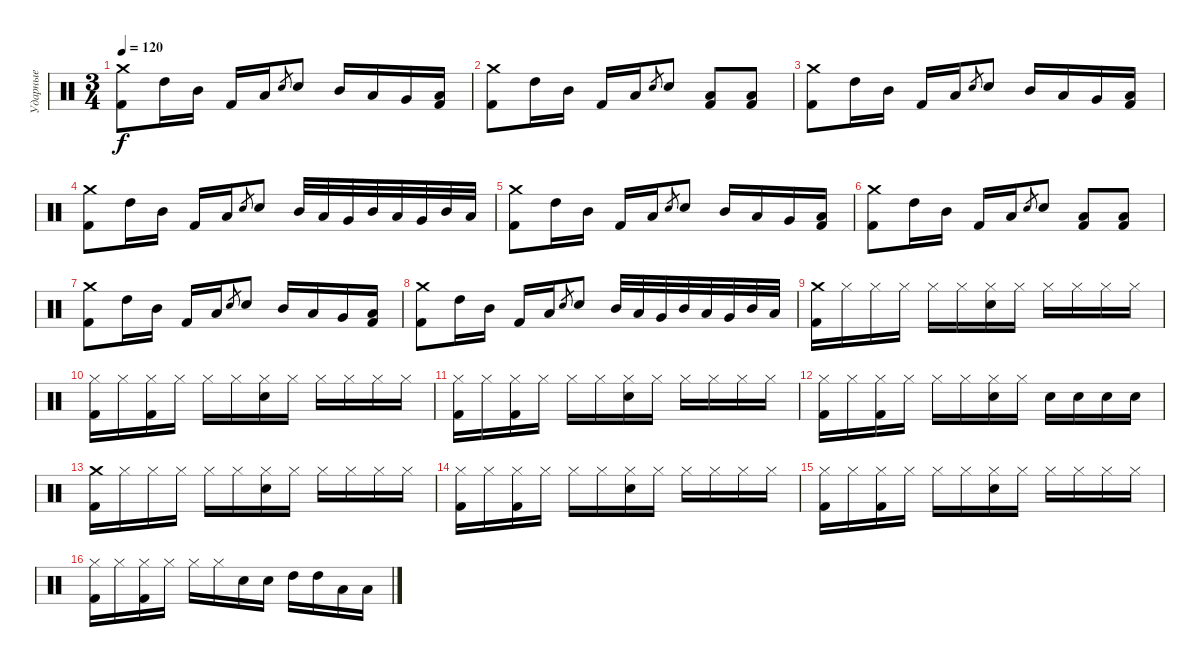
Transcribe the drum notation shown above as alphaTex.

\track ("Ударные" "Ударные") {instrument percussion}
\staff {score}
\articulation defaults
\ts (3 4)
\tempo 120
\clef neutral
\ks c
("Crash medium (hit)" "Kick (hit) 2").8{dy f} "High Tom (hit)".16 "Mid Tom (hit)".16 "Kick (hit) 2".16 "Low Tom (hit)".16 "Electric Snare (hit)".8{gr} "Electric Snare (hit)".8 "Mid Tom (hit)".16 "Low Tom (hit)".16 "Very Low Tom (hit)".16 ("Low Floor Tom (hit)" "Kick (hit) 2").16 |
("Crash medium (hit)" "Kick (hit) 2").8 "High Tom (hit)".16 "Mid Tom (hit)".16 "Kick (hit) 2".16 "Low Tom (hit)".16 "Electric Snare (hit)".8{gr} "Electric Snare (hit)".8 ("Low Floor Tom (hit)" "Kick (hit) 2").8 ("Low Floor Tom (hit)" "Kick (hit) 2").8 |
("Crash medium (hit)" "Kick (hit) 2").8 "High Tom (hit)".16 "Mid Tom (hit)".16 "Kick (hit) 2".16 "Low Tom (hit)".16 "Electric Snare (hit)".8{gr} "Electric Snare (hit)".8 "Mid Tom (hit)".16 "Low Tom (hit)".16 "Very Low Tom (hit)".16 ("Low Floor Tom (hit)" "Kick (hit) 2").16 |
("Crash medium (hit)" "Kick (hit) 2").8 "High Tom (hit)".16 "Mid Tom (hit)".16 "Kick (hit) 2".16 "Low Tom (hit)".16 "Electric Snare (hit)".8{gr} "Electric Snare (hit)".8 "Mid Tom (hit)".32 "Low Tom (hit)".32 "Very Low Tom (hit)".32 "Mid Tom (hit)".32 "Low Tom (hit)".32 "Very Low Tom (hit)".32 "Mid Tom (hit)".32 "Low Tom (hit)".32 |
("Crash medium (hit)" "Kick (hit) 2").8 "High Tom (hit)".16 "Mid Tom (hit)".16 "Kick (hit) 2".16 "Low Tom (hit)".16 "Electric Snare (hit)".8{gr} "Electric Snare (hit)".8 "Mid Tom (hit)".16 "Low Tom (hit)".16 "Very Low Tom (hit)".16 ("Low Floor Tom (hit)" "Kick (hit) 2").16 |
("Crash medium (hit)" "Kick (hit) 2").8 "High Tom (hit)".16 "Mid Tom (hit)".16 "Kick (hit) 2".16 "Low Tom (hit)".16 "Electric Snare (hit)".8{gr} "Electric Snare (hit)".8 ("Low Floor Tom (hit)" "Kick (hit) 2").8 ("Low Floor Tom (hit)" "Kick (hit) 2").8 |
("Crash medium (hit)" "Kick (hit) 2").8 "High Tom (hit)".16 "Mid Tom (hit)".16 "Kick (hit) 2".16 "Low Tom (hit)".16 "Electric Snare (hit)".8{gr} "Electric Snare (hit)".8 "Mid Tom (hit)".16 "Low Tom (hit)".16 "Very Low Tom (hit)".16 ("Low Floor Tom (hit)" "Kick (hit) 2").16 |
("Crash medium (hit)" "Kick (hit) 2").8 "High Tom (hit)".16 "Mid Tom (hit)".16 "Kick (hit) 2".16 "Low Tom (hit)".16 "Electric Snare (hit)".8{gr} "Electric Snare (hit)".8 "Mid Tom (hit)".32 "Low Tom (hit)".32 "Very Low Tom (hit)".32 "Mid Tom (hit)".32 "Low Tom (hit)".32 "Very Low Tom (hit)".32 "Mid Tom (hit)".32 "Low Tom (hit)".32 |
("Crash medium (hit)" "Kick (hit) 2").16 "Hi-Hat (closed)".16 "Hi-Hat (closed)".16 "Hi-Hat (closed)".16 "Hi-Hat (closed)".16 "Hi-Hat (closed)".16 ("Hi-Hat (closed)" "Electric Snare (hit)").16 "Hi-Hat (closed)".16 "Hi-Hat (closed)".16 "Hi-Hat (closed)".16 "Hi-Hat (closed)".16 "Hi-Hat (closed)".16 |
("Hi-Hat (closed)" "Kick (hit) 2").16 "Hi-Hat (closed)".16 ("Hi-Hat (closed)" "Kick (hit) 2").16 "Hi-Hat (closed)".16 "Hi-Hat (closed)".16 "Hi-Hat (closed)".16 ("Hi-Hat (closed)" "Electric Snare (hit)").16 "Hi-Hat (closed)".16 "Hi-Hat (closed)".16 "Hi-Hat (closed)".16 "Hi-Hat (closed)".16 "Hi-Hat (closed)".16 |
("Hi-Hat (closed)" "Kick (hit) 2").16 "Hi-Hat (closed)".16 ("Hi-Hat (closed)" "Kick (hit) 2").16 "Hi-Hat (closed)".16 "Hi-Hat (closed)".16 "Hi-Hat (closed)".16 ("Hi-Hat (closed)" "Electric Snare (hit)").16 "Hi-Hat (closed)".16 "Hi-Hat (closed)".16 "Hi-Hat (closed)".16 "Hi-Hat (closed)".16 "Hi-Hat (closed)".16 |
("Hi-Hat (closed)" "Kick (hit) 2").16 "Hi-Hat (closed)".16 ("Hi-Hat (closed)" "Kick (hit) 2").16 "Hi-Hat (closed)".16 "Hi-Hat (closed)".16 "Hi-Hat (closed)".16 ("Hi-Hat (closed)" "Electric Snare (hit)").16 "Hi-Hat (closed)".16 "Electric Snare (hit)".16 "Electric Snare (hit)".16 "Electric Snare (hit)".16 "Electric Snare (hit)".16 |
("Crash medium (hit)" "Kick (hit) 2").16 "Hi-Hat (closed)".16 "Hi-Hat (closed)".16 "Hi-Hat (closed)".16 "Hi-Hat (closed)".16 "Hi-Hat (closed)".16 ("Hi-Hat (closed)" "Electric Snare (hit)").16 "Hi-Hat (closed)".16 "Hi-Hat (closed)".16 "Hi-Hat (closed)".16 "Hi-Hat (closed)".16 "Hi-Hat (closed)".16 |
("Hi-Hat (closed)" "Kick (hit) 2").16 "Hi-Hat (closed)".16 ("Hi-Hat (closed)" "Kick (hit) 2").16 "Hi-Hat (closed)".16 "Hi-Hat (closed)".16 "Hi-Hat (closed)".16 ("Hi-Hat (closed)" "Electric Snare (hit)").16 "Hi-Hat (closed)".16 "Hi-Hat (closed)".16 "Hi-Hat (closed)".16 "Hi-Hat (closed)".16 "Hi-Hat (closed)".16 |
("Hi-Hat (closed)" "Kick (hit) 2").16 "Hi-Hat (closed)".16 ("Hi-Hat (closed)" "Kick (hit) 2").16 "Hi-Hat (closed)".16 "Hi-Hat (closed)".16 "Hi-Hat (closed)".16 ("Hi-Hat (closed)" "Electric Snare (hit)").16 "Hi-Hat (closed)".16 "Hi-Hat (closed)".16 "Hi-Hat (closed)".16 "Hi-Hat (closed)".16 "Hi-Hat (closed)".16 |
("Hi-Hat (closed)" "Kick (hit) 2").16 "Hi-Hat (closed)".16 ("Hi-Hat (closed)" "Kick (hit) 2").16 "Hi-Hat (closed)".16 "Hi-Hat (closed)".16 "Hi-Hat (closed)".16 "Electric Snare (hit)".16 "Electric Snare (hit)".16 "High Tom (hit)".16 "High Tom (hit)".16 "Low Tom (hit)".16 "Low Tom (hit)".16
